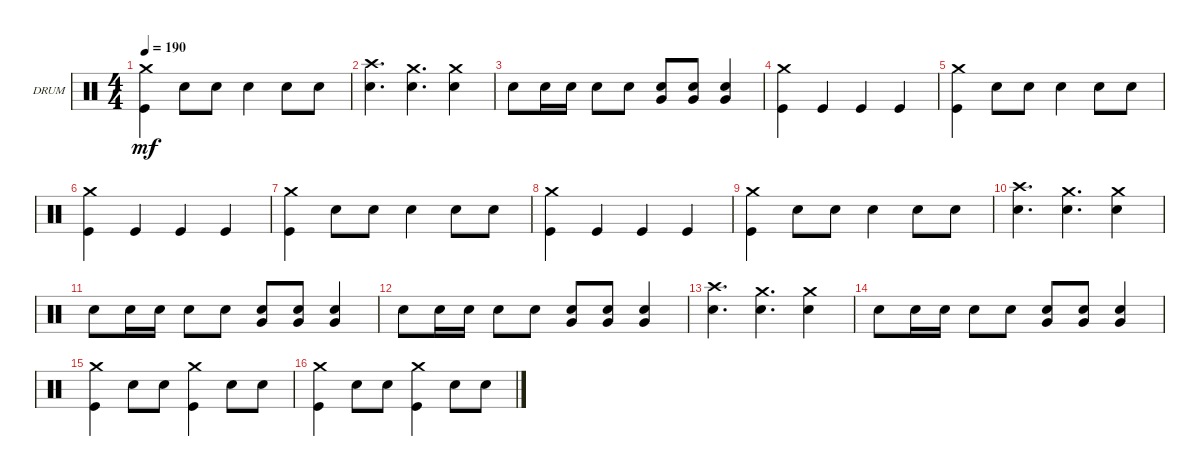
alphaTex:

\defaultSystemsLayout 4
\bracketExtendMode groupsimilarinstruments
\firstSystemTrackNameOrientation horizontal
\otherSystemsTrackNameOrientation horizontal
\track ("Drums" "DRUM") {instrument percussion}
\staff {score}
\articulation defaults
\ts (4 4)
\tempo 190
\clef neutral
\ks c
("Crash medium (hit)" "Kick (hit)").4{dy mf} "Snare (hit) 2".8 "Snare (hit) 2".8 "Snare (hit) 2".4 "Snare (hit) 2".8 "Snare (hit) 2".8 |
("Crash high (hit)" "Snare (hit) 2").4{d} ("Snare (hit) 2" "Crash medium (hit)").4{d} ("Crash medium (hit)" "Snare (hit) 2").4 |
"Snare (hit) 2".8 "Snare (hit) 2".16 "Snare (hit) 2".16 "Snare (hit) 2".8 "Snare (hit) 2".8 ("Snare (hit) 2" "Very Low Tom (hit)").8 ("Snare (hit) 2" "Very Low Tom (hit)").8 ("Snare (hit) 2" "Very Low Tom (hit)").4 |
("Kick (hit)" "Crash medium (hit)").4 "Kick (hit)".4 "Kick (hit)".4 "Kick (hit)".4 |
("Crash medium (hit)" "Kick (hit)").4 "Snare (hit) 2".8 "Snare (hit) 2".8 "Snare (hit) 2".4 "Snare (hit) 2".8 "Snare (hit) 2".8 |
("Kick (hit)" "Crash medium (hit)").4 "Kick (hit)".4 "Kick (hit)".4 "Kick (hit)".4 |
("Crash medium (hit)" "Kick (hit)").4 "Snare (hit) 2".8 "Snare (hit) 2".8 "Snare (hit) 2".4 "Snare (hit) 2".8 "Snare (hit) 2".8 |
("Kick (hit)" "Crash medium (hit)").4 "Kick (hit)".4 "Kick (hit)".4 "Kick (hit)".4 |
("Crash medium (hit)" "Kick (hit)").4 "Snare (hit) 2".8 "Snare (hit) 2".8 "Snare (hit) 2".4 "Snare (hit) 2".8 "Snare (hit) 2".8 |
("Crash high (hit)" "Snare (hit) 2").4{d} ("Snare (hit) 2" "Crash medium (hit)").4{d} ("Crash medium (hit)" "Snare (hit) 2").4 |
"Snare (hit) 2".8 "Snare (hit) 2".16 "Snare (hit) 2".16 "Snare (hit) 2".8 "Snare (hit) 2".8 ("Snare (hit) 2" "Very Low Tom (hit)").8 ("Snare (hit) 2" "Very Low Tom (hit)").8 ("Snare (hit) 2" "Very Low Tom (hit)").4 |
"Snare (hit) 2".8 "Snare (hit) 2".16 "Snare (hit) 2".16 "Snare (hit) 2".8 "Snare (hit) 2".8 ("Snare (hit) 2" "Very Low Tom (hit)").8 ("Snare (hit) 2" "Very Low Tom (hit)").8 ("Snare (hit) 2" "Very Low Tom (hit)").4 |
("Crash high (hit)" "Snare (hit) 2").4{d} ("Snare (hit) 2" "Crash medium (hit)").4{d} ("Crash medium (hit)" "Snare (hit) 2").4 |
"Snare (hit) 2".8 "Snare (hit) 2".16 "Snare (hit) 2".16 "Snare (hit) 2".8 "Snare (hit) 2".8 ("Snare (hit) 2" "Very Low Tom (hit)").8 ("Snare (hit) 2" "Very Low Tom (hit)").8 ("Snare (hit) 2" "Very Low Tom (hit)").4 |
("Kick (hit)" "Crash medium (hit)").4 "Snare (hit) 2".8 "Snare (hit) 2".8 ("Kick (hit)" "Crash medium (hit)").4 "Snare (hit) 2".8 "Snare (hit) 2".8 |
("Kick (hit)" "Crash medium (hit)").4 "Snare (hit) 2".8 "Snare (hit) 2".8 ("Kick (hit)" "Crash medium (hit)").4 "Snare (hit) 2".8 "Snare (hit) 2".8
